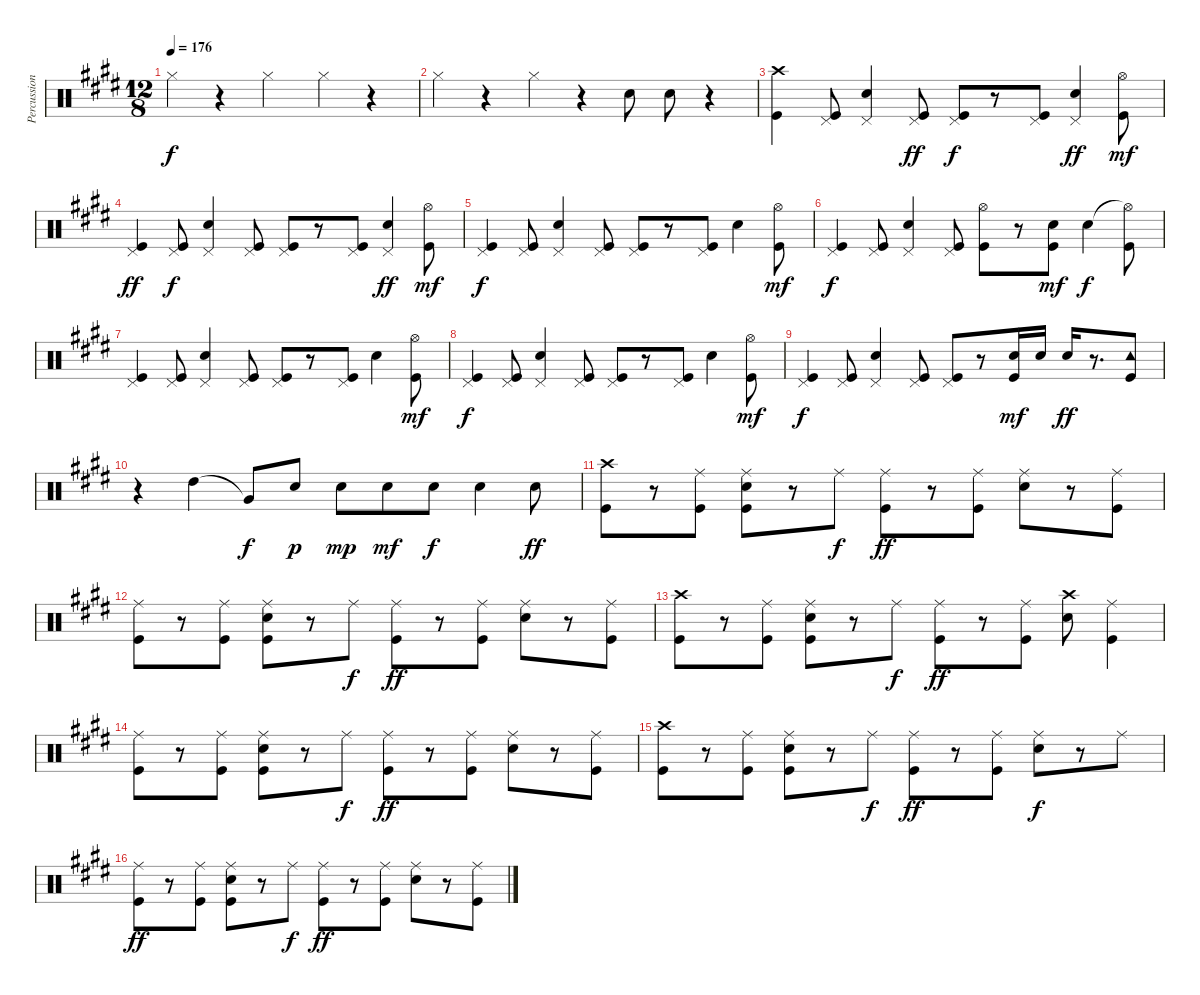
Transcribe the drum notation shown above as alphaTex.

\track ("Percussion" "Percussion") {instrument percussion}
\staff {score}
\articulation defaults
\ts (12 8)
\tempo 176
\clef neutral
\ks e "Hi-Hat (closed)".4{dy f}
r.4 "Hi-Hat (closed)".2 "Hi-Hat (closed)".4 r.4 |
"Hi-Hat (closed)".4 r.4 "Hi-Hat (closed)".4 r.4 "Snare (hit) 2".8 "Snare (hit) 2".8 r.4 |
("Crash high (hit)" "Kick (hit)").4 ("Pedal Hi-Hat (hit)" "Kick (hit)").8 ("Electric Snare (hit)" "Pedal Hi-Hat (hit)").4 ("Pedal Hi-Hat (hit)" "Kick (hit)").8{dy ff} ("Pedal Hi-Hat (hit)" "Kick (hit)").8{dy f} r.8 ("Pedal Hi-Hat (hit)" "Kick (hit)").8 ("Electric Snare (hit)" "Pedal Hi-Hat (hit)").4{dy ff} ("Hi-Hat (open)" "Kick (hit)").8{dy mf} |
("Pedal Hi-Hat (hit)" "Kick (hit)").4{dy ff} ("Pedal Hi-Hat (hit)" "Kick (hit)").8{dy f} ("Electric Snare (hit)" "Pedal Hi-Hat (hit)").4 ("Pedal Hi-Hat (hit)" "Kick (hit)").8 ("Pedal Hi-Hat (hit)" "Kick (hit)").8 r.8 ("Pedal Hi-Hat (hit)" "Kick (hit)").8 ("Electric Snare (hit)" "Pedal Hi-Hat (hit)").4{dy ff} ("Hi-Hat (open)" "Kick (hit)").8{dy mf} |
("Pedal Hi-Hat (hit)" "Kick (hit)").4{dy f} ("Pedal Hi-Hat (hit)" "Kick (hit)").8 ("Electric Snare (hit)" "Pedal Hi-Hat (hit)").4 ("Pedal Hi-Hat (hit)" "Kick (hit)").8 ("Pedal Hi-Hat (hit)" "Kick (hit)").8 r.8 ("Pedal Hi-Hat (hit)" "Kick (hit)").8 "Electric Snare (hit)".4 ("Hi-Hat (open)" "Kick (hit)").8{dy mf} |
("Pedal Hi-Hat (hit)" "Kick (hit)").4{dy f} ("Pedal Hi-Hat (hit)" "Kick (hit)").8 ("Electric Snare (hit)" "Pedal Hi-Hat (hit)").4 ("Pedal Hi-Hat (hit)" "Kick (hit)").8 ("Hi-Hat (open)" "Kick (hit)").8 r.8 ("Electric Snare (hit)" "Kick (hit)").8{dy mf} "Electric Snare (hit)".4{dy f} ("Hi-Hat (open)"{t} "Kick (hit)").8 |
("Pedal Hi-Hat (hit)" "Kick (hit)").4 ("Pedal Hi-Hat (hit)" "Kick (hit)").8 ("Electric Snare (hit)" "Pedal Hi-Hat (hit)").4 ("Pedal Hi-Hat (hit)" "Kick (hit)").8 ("Pedal Hi-Hat (hit)" "Kick (hit)").8 r.8 ("Pedal Hi-Hat (hit)" "Kick (hit)").8 "Electric Snare (hit)".4 ("Hi-Hat (open)" "Kick (hit)").8{dy mf} |
("Pedal Hi-Hat (hit)" "Kick (hit)").4{dy f} ("Pedal Hi-Hat (hit)" "Kick (hit)").8 ("Electric Snare (hit)" "Pedal Hi-Hat (hit)").4 ("Pedal Hi-Hat (hit)" "Kick (hit)").8 ("Pedal Hi-Hat (hit)" "Kick (hit)").8 r.8 ("Pedal Hi-Hat (hit)" "Kick (hit)").8 "Electric Snare (hit)".4 ("Hi-Hat (open)" "Kick (hit)").8{dy mf} |
("Pedal Hi-Hat (hit)" "Kick (hit)").4{dy f} ("Pedal Hi-Hat (hit)" "Kick (hit)").8 ("Electric Snare (hit)" "Pedal Hi-Hat (hit)").4 ("Pedal Hi-Hat (hit)" "Kick (hit)").8 ("Pedal Hi-Hat (hit)" "Kick (hit)").8 r.8 ("Snare (hit) 2" "Kick (hit)").16{dy mf} "Snare (hit) 2".16 "Snare (hit) 2".16{dy ff} r.8{d} ("Tambourine (hit)" "Kick (hit)").8 |
r.4 "High Tom (hit)".4 "Very Low Tom (hit)"{t}.8{dy f} "Snare (hit) 2".8{dy p} "Snare (hit) 2".8{dy mp} "Snare (hit) 2".8{dy mf} "Snare (hit) 2".8{dy f} "Snare (hit) 2".4 "Electric Snare (hit)".8{dy ff} |
("Crash high (hit)" "Kick (hit)").8 r.8 ("Ride (middle)" "Kick (hit)").8 ("Ride (middle)" "Electric Snare (hit)" "Kick (hit)").8 r.8 "Ride (middle)".8{dy f} ("Ride (middle)" "Kick (hit)").8{dy ff} r.8 ("Ride (middle)" "Kick (hit)").8 ("Ride (middle)" "Electric Snare (hit)").8 r.8 ("Ride (middle)" "Kick (hit)").8 |
("Ride (middle)" "Kick (hit)").8 r.8 ("Ride (middle)" "Kick (hit)").8 ("Ride (middle)" "Electric Snare (hit)" "Kick (hit)").8 r.8 "Ride (middle)".8{dy f} ("Ride (middle)" "Kick (hit)").8{dy ff} r.8 ("Ride (middle)" "Kick (hit)").8 ("Ride (middle)" "Electric Snare (hit)").8 r.8 ("Ride (middle)" "Kick (hit)").8 |
("Crash high (hit)" "Kick (hit)").8 r.8 ("Ride (middle)" "Kick (hit)").8 ("Ride (middle)" "Electric Snare (hit)" "Kick (hit)").8 r.8 "Ride (middle)".8{dy f} ("Ride (middle)" "Kick (hit)").8{dy ff} r.8 ("Ride (middle)" "Kick (hit)").8 ("Crash high (hit)" "Electric Snare (hit)").8 ("Ride (middle)" "Kick (hit)").4 |
("Ride (middle)" "Kick (hit)").8 r.8 ("Ride (middle)" "Kick (hit)").8 ("Ride (middle)" "Electric Snare (hit)" "Kick (hit)").8 r.8 "Ride (middle)".8{dy f} ("Ride (middle)" "Kick (hit)").8{dy ff} r.8 ("Ride (middle)" "Kick (hit)").8 ("Ride (middle)" "Electric Snare (hit)").8 r.8 ("Ride (middle)" "Kick (hit)").8 |
("Crash high (hit)" "Kick (hit)").8 r.8 ("Ride (middle)" "Kick (hit)").8 ("Ride (middle)" "Electric Snare (hit)" "Kick (hit)").8 r.8 "Ride (middle)".8{dy f} ("Ride (middle)" "Kick (hit)").8{dy ff} r.8 ("Ride (middle)" "Kick (hit)").8 ("Ride (middle)" "Electric Snare (hit)").8{dy f} r.8 "Ride (middle)".8 |
("Ride (middle)" "Kick (hit)").8{dy ff} r.8 ("Ride (middle)" "Kick (hit)").8 ("Ride (middle)" "Electric Snare (hit)" "Kick (hit)").8 r.8 "Ride (middle)".8{dy f} ("Ride (middle)" "Kick (hit)").8{dy ff} r.8 ("Ride (middle)" "Kick (hit)").8 ("Ride (middle)" "Electric Snare (hit)").8 r.8 ("Ride (middle)" "Kick (hit)").8
